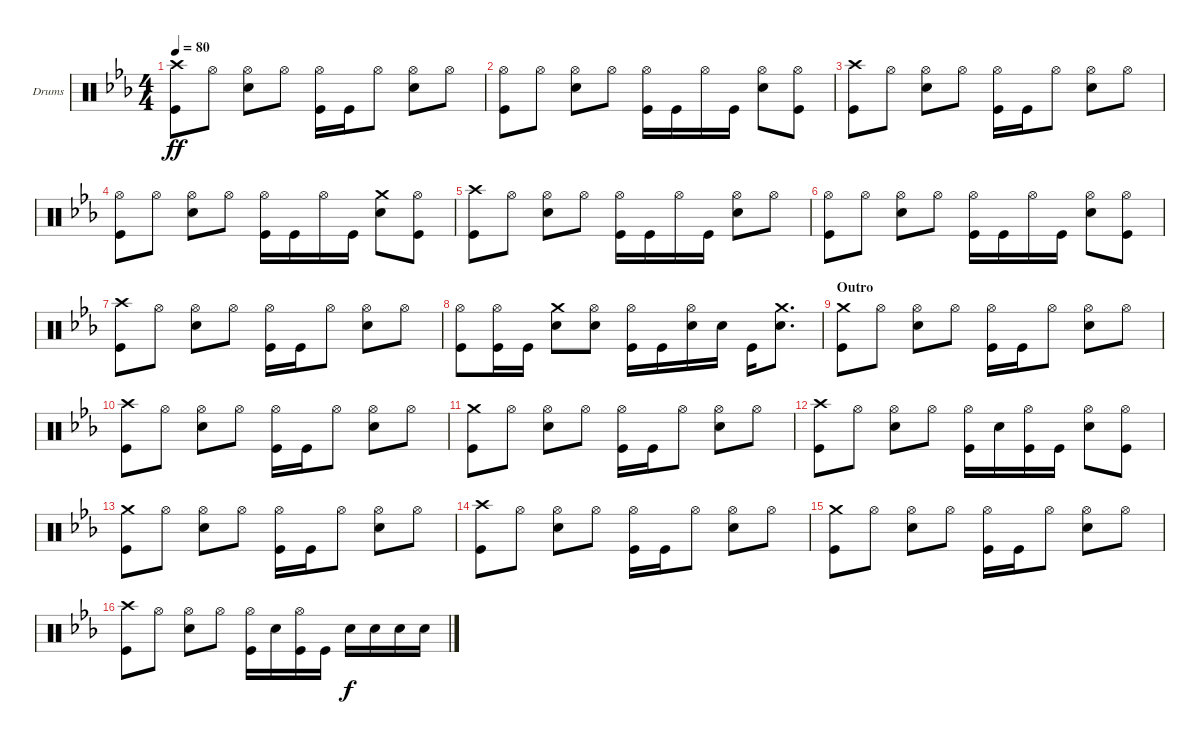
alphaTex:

\defaultSystemsLayout 4
\bracketExtendMode groupsimilarinstruments
\firstSystemTrackNameOrientation horizontal
\otherSystemsTrackNameOrientation horizontal
\track ("Mario Goossens" "Drums") {instrument percussion}
\staff {score}
\articulation defaults
\ts (4 4)
\tempo 80
\clef neutral
\ks cminor
("Kick (hit)" "Crash high (hit)").8{dy ff} "Hi-Hat (open)".8 ("Hi-Hat (open)" "Snare (hit) 2").8 "Hi-Hat (open)".8 ("Kick (hit)" "Hi-Hat (open)").16 "Kick (hit)".16 "Hi-Hat (open)".8 ("Hi-Hat (open)" "Snare (hit) 2").8 "Hi-Hat (open)".8 |
("Kick (hit)" "Hi-Hat (open)").8 "Hi-Hat (open)".8 ("Hi-Hat (open)" "Snare (hit) 2").8 "Hi-Hat (open)".8 ("Kick (hit)" "Hi-Hat (open)").16 "Kick (hit)".16 "Hi-Hat (open)".16 "Kick (hit)".16 ("Snare (hit) 2" "Hi-Hat (open)").8 ("Hi-Hat (open)" "Kick (hit)").8 |
("Kick (hit)" "Crash high (hit)").8 "Hi-Hat (open)".8 ("Hi-Hat (open)" "Snare (hit) 2").8 "Hi-Hat (open)".8 ("Kick (hit)" "Hi-Hat (open)").16 "Kick (hit)".16 "Hi-Hat (open)".8 ("Hi-Hat (open)" "Snare (hit) 2").8 "Hi-Hat (open)".8 |
("Kick (hit)" "Hi-Hat (open)").8 "Hi-Hat (open)".8 ("Hi-Hat (open)" "Snare (hit) 2").8 "Hi-Hat (open)".8 ("Kick (hit)" "Hi-Hat (open)").16 "Kick (hit)".16 "Hi-Hat (open)".16 "Kick (hit)".16 ("Snare (hit) 2" "Crash medium (hit)").8 ("Hi-Hat (open)" "Kick (hit)").8 |
("Kick (hit)" "Crash high (hit)").8 "Hi-Hat (open)".8 ("Hi-Hat (open)" "Snare (hit) 2").8 "Hi-Hat (open)".8 ("Kick (hit)" "Hi-Hat (open)").16 "Kick (hit)".16 "Hi-Hat (open)".16 "Kick (hit)".16 ("Hi-Hat (open)" "Snare (hit) 2").8 "Hi-Hat (open)".8 |
("Kick (hit)" "Hi-Hat (open)").8 "Hi-Hat (open)".8 ("Hi-Hat (open)" "Snare (hit) 2").8 "Hi-Hat (open)".8 ("Kick (hit)" "Hi-Hat (open)").16 "Kick (hit)".16 "Hi-Hat (open)".16 "Kick (hit)".16 ("Snare (hit) 2" "Hi-Hat (open)").8 ("Hi-Hat (open)" "Kick (hit)").8 |
("Kick (hit)" "Crash high (hit)").8 "Hi-Hat (open)".8 ("Hi-Hat (open)" "Snare (hit) 2").8 "Hi-Hat (open)".8 ("Kick (hit)" "Hi-Hat (open)").16 "Kick (hit)".16 "Hi-Hat (open)".8 ("Hi-Hat (open)" "Snare (hit) 2").8 "Hi-Hat (open)".8 |
("Kick (hit)" "Hi-Hat (open)").8 ("Kick (hit)" "Hi-Hat (open)").16 "Kick (hit)".16 ("Snare (hit) 2" "Crash medium (hit)").8 ("Snare (hit) 2" "Hi-Hat (open)").8 ("Kick (hit)" "Hi-Hat (open)").16 "Kick (hit)".16 ("Snare (hit) 2" "Hi-Hat (open)").16 "Snare (hit) 2".16 "Kick (hit)".16 ("Snare (hit) 2" "Crash medium (hit)").8{d} |
\section ("" "Outro")
("Kick (hit)" "Crash medium (hit)").8 "Hi-Hat (open)".8 ("Hi-Hat (open)" "Snare (hit) 2").8 "Hi-Hat (open)".8 ("Kick (hit)" "Hi-Hat (open)").16 "Kick (hit)".16 "Hi-Hat (open)".8 ("Hi-Hat (open)" "Snare (hit) 2").8 "Hi-Hat (open)".8 |
("Kick (hit)" "Crash high (hit)").8 "Hi-Hat (open)".8 ("Hi-Hat (open)" "Snare (hit) 2").8 "Hi-Hat (open)".8 ("Kick (hit)" "Hi-Hat (open)").16 "Kick (hit)".16 "Hi-Hat (open)".8 ("Hi-Hat (open)" "Snare (hit) 2").8 "Hi-Hat (open)".8 |
("Kick (hit)" "Crash medium (hit)").8 "Hi-Hat (open)".8 ("Hi-Hat (open)" "Snare (hit) 2").8 "Hi-Hat (open)".8 ("Kick (hit)" "Hi-Hat (open)").16 "Kick (hit)".16 "Hi-Hat (open)".8 ("Hi-Hat (open)" "Snare (hit) 2").8 "Hi-Hat (open)".8 |
("Kick (hit)" "Crash high (hit)").8 "Hi-Hat (open)".8 ("Hi-Hat (open)" "Snare (hit) 2").8 "Hi-Hat (open)".8 ("Kick (hit)" "Hi-Hat (open)").16 "Snare (hit) 2".16 ("Hi-Hat (open)" "Kick (hit)").16 "Kick (hit)".16 ("Hi-Hat (open)" "Snare (hit) 2").8 ("Hi-Hat (open)" "Kick (hit)").8 |
("Kick (hit)" "Crash medium (hit)").8 "Hi-Hat (open)".8 ("Hi-Hat (open)" "Snare (hit) 2").8 "Hi-Hat (open)".8 ("Kick (hit)" "Hi-Hat (open)").16 "Kick (hit)".16 "Hi-Hat (open)".8 ("Hi-Hat (open)" "Snare (hit) 2").8 "Hi-Hat (open)".8 |
("Kick (hit)" "Crash high (hit)").8 "Hi-Hat (open)".8 ("Hi-Hat (open)" "Snare (hit) 2").8 "Hi-Hat (open)".8 ("Kick (hit)" "Hi-Hat (open)").16 "Kick (hit)".16 "Hi-Hat (open)".8 ("Hi-Hat (open)" "Snare (hit) 2").8 "Hi-Hat (open)".8 |
("Kick (hit)" "Crash medium (hit)").8 "Hi-Hat (open)".8 ("Hi-Hat (open)" "Snare (hit) 2").8 "Hi-Hat (open)".8 ("Kick (hit)" "Hi-Hat (open)").16 "Kick (hit)".16 "Hi-Hat (open)".8 ("Hi-Hat (open)" "Snare (hit) 2").8 "Hi-Hat (open)".8 |
("Kick (hit)" "Crash high (hit)").8 "Hi-Hat (open)".8 ("Hi-Hat (open)" "Snare (hit) 2").8 "Hi-Hat (open)".8 ("Kick (hit)" "Hi-Hat (open)").16 "Snare (hit) 2".16 ("Hi-Hat (open)" "Kick (hit)").16 "Kick (hit)".16 "Snare (hit) 2".16{dy f} "Snare (hit) 2".16 "Snare (hit) 2".16 "Snare (hit) 2".16
